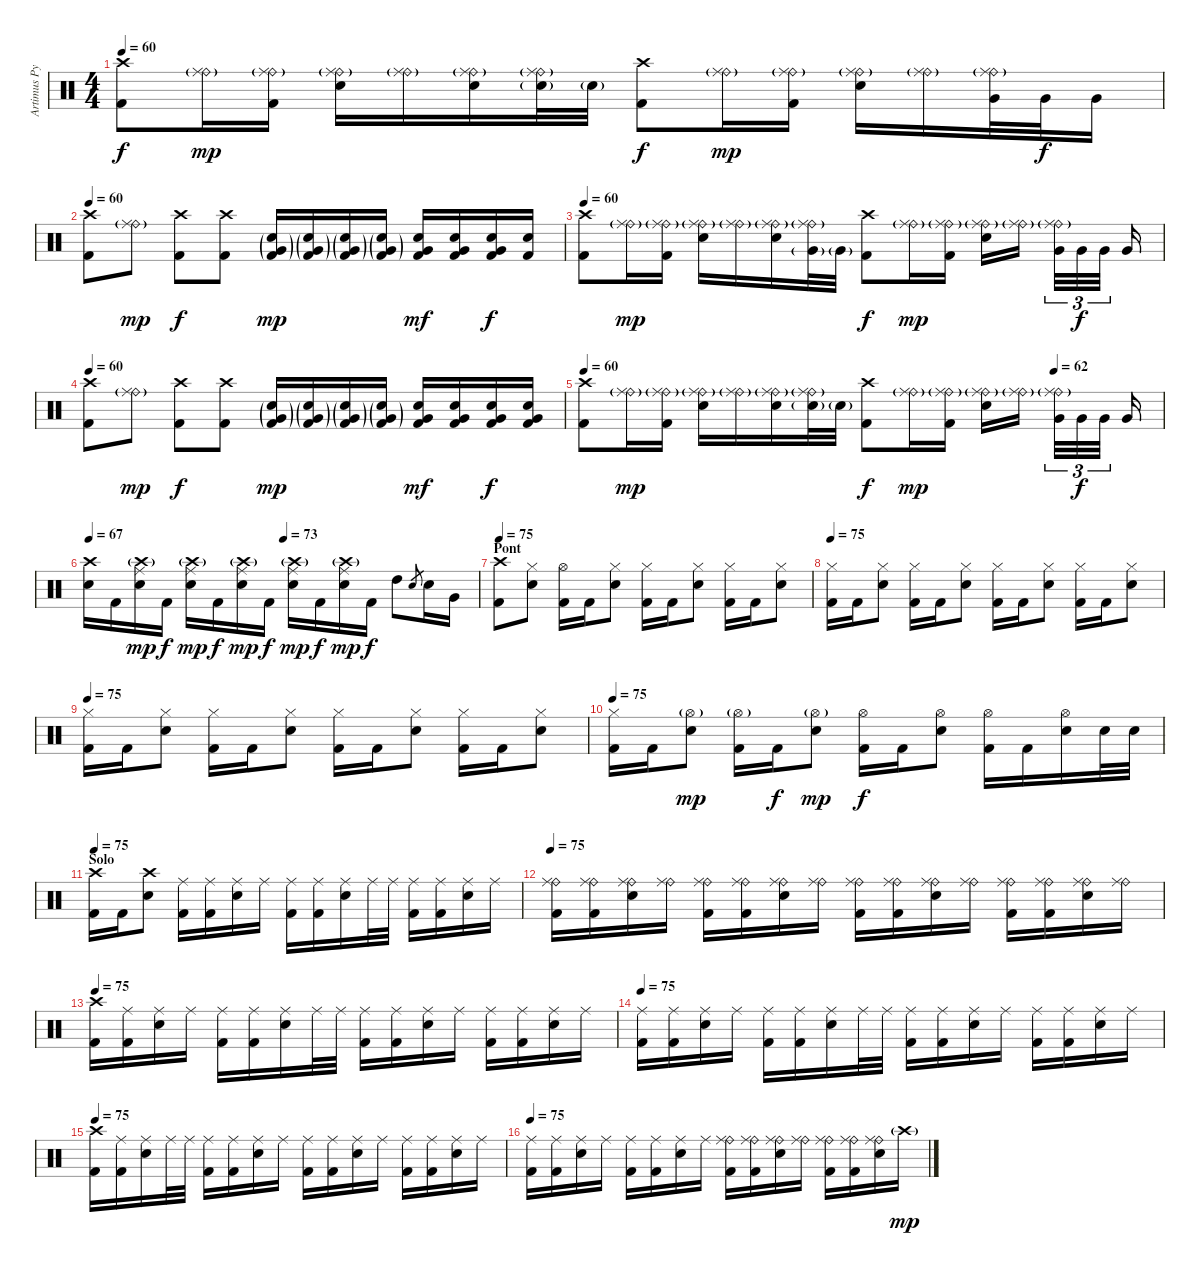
\track ("Artimus Pyle (drums)" "Artimus Py") {instrument percussion}
\staff {score}
\articulation defaults
\ts (4 4)
\tempo 60
\clef neutral
\ks c
("Crash high (hit)" "Kick (hit) 2").8{dy f} ("Ride (bell)"{g} "Ride (middle)").16{dy mp} ("Ride (bell)"{g} "Ride (middle)" "Kick (hit) 2").16 ("Ride (bell)"{g} "Ride (middle)" "Electric Snare (hit)").16 ("Ride (bell)"{g} "Ride (middle)").16 ("Ride (bell)"{g} "Ride (middle)" "Electric Snare (hit)").16 ("Ride (bell)"{g} "Ride (middle)" "Electric Snare (hit)"{g}).32 "Electric Snare (hit)"{g}.32 ("Crash high (hit)" "Kick (hit) 2").8{dy f} ("Ride (bell)"{g} "Ride (middle)").16{dy mp} ("Ride (bell)"{g} "Ride (middle)" "Kick (hit) 2").16 ("Ride (bell)"{g} "Ride (middle)" "Electric Snare (hit)").16 ("Ride (bell)"{g} "Ride (middle)").16 ("Ride (bell)"{g} "Ride (middle)" "Very Low Tom (hit)").32 "Very Low Tom (hit)".32{dy f} "Very Low Tom (hit)".16 |
\tempo 60
("Crash high (hit)" "Kick (hit) 2").8 ("Ride (bell)"{g} "Ride (middle)").8{dy mp} ("Crash high (hit)" "Kick (hit) 2").8{dy f} ("Crash high (hit)" "Kick (hit) 2").8 ("Very Low Tom (hit)"{g} "Electric Snare (hit)"{g} "Kick (hit) 2"{g}).16{dy mp} ("Very Low Tom (hit)"{g} "Electric Snare (hit)"{g} "Kick (hit) 2"{g}).16 ("Very Low Tom (hit)"{g} "Electric Snare (hit)"{g} "Kick (hit) 2"{g}).16 ("Very Low Tom (hit)"{g} "Electric Snare (hit)"{g} "Kick (hit) 2"{g}).16 ("Very Low Tom (hit)" "Electric Snare (hit)" "Kick (hit) 2").16{dy mf} ("Very Low Tom (hit)" "Electric Snare (hit)" "Kick (hit) 2").16 ("Very Low Tom (hit)" "Electric Snare (hit)" "Kick (hit) 2").16{dy f} ("Electric Snare (hit)" "Kick (hit) 2").16 |
\tempo 60
("Crash high (hit)" "Kick (hit) 2").8 ("Ride (bell)"{g} "Ride (middle)").16{dy mp} ("Ride (bell)"{g} "Ride (middle)" "Kick (hit) 2").16 ("Ride (bell)"{g} "Ride (middle)" "Electric Snare (hit)").16 ("Ride (bell)"{g} "Ride (middle)").16 ("Ride (bell)"{g} "Ride (middle)" "Electric Snare (hit)").16 ("Ride (bell)"{g} "Ride (middle)" "Very Low Tom (hit)"{g}).32 "Very Low Tom (hit)"{g}.32 ("Crash high (hit)" "Kick (hit) 2").8{dy f} ("Ride (bell)"{g} "Ride (middle)").16{dy mp} ("Ride (bell)"{g} "Ride (middle)" "Kick (hit) 2").16 ("Ride (bell)"{g} "Ride (middle)" "Electric Snare (hit)").16 ("Ride (bell)"{g} "Ride (middle)").16 ("Ride (bell)"{g} "Ride (middle)" "Very Low Tom (hit)").32{tu (3 2)} "Very Low Tom (hit)".32{tu (3 2) dy f} "Very Low Tom (hit)".32{tu (3 2)} "Very Low Tom (hit)".16 |
\tempo 60
("Crash high (hit)" "Kick (hit) 2").8 ("Ride (bell)"{g} "Ride (middle)").8{dy mp} ("Crash high (hit)" "Kick (hit) 2").8{dy f} ("Crash high (hit)" "Kick (hit) 2").8 ("Very Low Tom (hit)"{g} "Electric Snare (hit)"{g} "Kick (hit) 2"{g}).16{dy mp} ("Very Low Tom (hit)"{g} "Electric Snare (hit)"{g} "Kick (hit) 2"{g}).16 ("Very Low Tom (hit)"{g} "Electric Snare (hit)"{g} "Kick (hit) 2"{g}).16 ("Very Low Tom (hit)"{g} "Electric Snare (hit)"{g} "Kick (hit) 2"{g}).16 ("Very Low Tom (hit)" "Electric Snare (hit)" "Kick (hit) 2").16{dy mf} ("Very Low Tom (hit)" "Electric Snare (hit)" "Kick (hit) 2").16 ("Very Low Tom (hit)" "Electric Snare (hit)" "Kick (hit) 2").16{dy f} ("Very Low Tom (hit)" "Electric Snare (hit)" "Kick (hit) 2").16 |
\tempo 60
\tempo (62 0.8125)
("Crash high (hit)" "Kick (hit) 2").8 ("Ride (bell)"{g} "Ride (middle)").16{dy mp} ("Ride (bell)"{g} "Ride (middle)" "Kick (hit) 2").16 ("Ride (bell)"{g} "Ride (middle)" "Electric Snare (hit)").16 ("Ride (bell)"{g} "Ride (middle)").16 ("Ride (bell)"{g} "Ride (middle)" "Electric Snare (hit)").16 ("Ride (bell)"{g} "Ride (middle)" "Electric Snare (hit)"{g}).32 "Electric Snare (hit)"{g}.32 ("Crash high (hit)" "Kick (hit) 2").8{dy f} ("Ride (bell)"{g} "Ride (middle)").16{dy mp} ("Ride (bell)"{g} "Ride (middle)" "Kick (hit) 2").16 ("Ride (bell)"{g} "Ride (middle)" "Electric Snare (hit)").16 ("Ride (bell)"{g} "Ride (middle)").16 ("Ride (bell)"{g} "Ride (middle)" "Very Low Tom (hit)").32{tu (3 2)} "Very Low Tom (hit)".32{tu (3 2) dy f} "Very Low Tom (hit)".32{tu (3 2)} "Very Low Tom (hit)".16 |
\tempo 67
\tempo (73 0.5)
("Crash high (hit)" "Electric Snare (hit)").16 "Kick (hit) 2".16 ("Crash high (hit)"{g} "Ride (middle)" "Electric Snare (hit)").16{dy mp} "Kick (hit) 2".16{dy f} ("Crash high (hit)"{g} "Ride (middle)" "Electric Snare (hit)").16{dy mp} "Kick (hit) 2".16{dy f} ("Crash high (hit)"{g} "Ride (middle)" "Electric Snare (hit)").16{dy mp} "Kick (hit) 2".16{dy f} ("Crash high (hit)"{g} "Ride (middle)" "Electric Snare (hit)").16{dy mp} "Kick (hit) 2".16{dy f} ("Crash high (hit)"{g} "Ride (middle)" "Electric Snare (hit)").16{dy mp} "Kick (hit) 2".16{dy f} "High Tom (hit)".8 "Electric Snare (hit)".8{gr} "Electric Snare (hit)".16 "Very Low Tom (hit)".16 |
\section ("" "Pont")
\tempo 75
("Crash high (hit)" "Kick (hit) 2").8 ("Hi-Hat (closed)" "Electric Snare (hit)").8 ("Hi-Hat (open)" "Kick (hit) 2").16 "Kick (hit) 2".16 ("Hi-Hat (closed)" "Electric Snare (hit)").8 ("Hi-Hat (closed)" "Kick (hit) 2").16 "Kick (hit) 2".16 ("Hi-Hat (closed)" "Electric Snare (hit)").8 ("Hi-Hat (closed)" "Kick (hit) 2").16 "Kick (hit) 2".16 ("Hi-Hat (closed)" "Electric Snare (hit)").8 |
\tempo 75
("Hi-Hat (closed)" "Kick (hit) 2").16 "Kick (hit) 2".16 ("Hi-Hat (closed)" "Electric Snare (hit)").8 ("Hi-Hat (closed)" "Kick (hit) 2").16 "Kick (hit) 2".16 ("Hi-Hat (closed)" "Electric Snare (hit)").8 ("Hi-Hat (closed)" "Kick (hit) 2").16 "Kick (hit) 2".16 ("Hi-Hat (closed)" "Electric Snare (hit)").8 ("Hi-Hat (closed)" "Kick (hit) 2").16 "Kick (hit) 2".16 ("Hi-Hat (closed)" "Electric Snare (hit)").8 |
\tempo 75
("Hi-Hat (closed)" "Kick (hit) 2").16 "Kick (hit) 2".16 ("Hi-Hat (closed)" "Electric Snare (hit)").8 ("Hi-Hat (closed)" "Kick (hit) 2").16 "Kick (hit) 2".16 ("Hi-Hat (closed)" "Electric Snare (hit)").8 ("Hi-Hat (closed)" "Kick (hit) 2").16 "Kick (hit) 2".16 ("Hi-Hat (closed)" "Electric Snare (hit)").8 ("Hi-Hat (closed)" "Kick (hit) 2").16 "Kick (hit) 2".16 ("Hi-Hat (closed)" "Electric Snare (hit)").8 |
\tempo 75
("Hi-Hat (closed)" "Kick (hit) 2").16 "Kick (hit) 2".16 ("Hi-Hat (open)"{g} "Electric Snare (hit)").8{dy mp} ("Hi-Hat (open)"{g} "Kick (hit) 2").16 "Kick (hit) 2".16{dy f} ("Hi-Hat (open)"{g} "Electric Snare (hit)").8{dy mp} ("Hi-Hat (open)" "Kick (hit) 2").16{dy f} "Kick (hit) 2".16 ("Hi-Hat (open)" "Electric Snare (hit)").8 ("Hi-Hat (open)" "Kick (hit) 2").16 "Kick (hit) 2".16 ("Hi-Hat (open)" "Electric Snare (hit)").16 "Electric Snare (hit)".32 "Electric Snare (hit)".32 |
\section ("" "Solo")
\tempo 75
("Crash high (hit)" "Kick (hit) 2").16 "Kick (hit) 2".16 ("Crash high (hit)" "Electric Snare (hit)").8 ("Ride (middle)" "Kick (hit) 2").16 ("Ride (middle)" "Kick (hit) 2").16 ("Ride (middle)" "Electric Snare (hit)").16 "Ride (middle)".16 ("Ride (middle)" "Kick (hit) 2").16 ("Ride (middle)" "Kick (hit) 2").16 ("Ride (middle)" "Electric Snare (hit)").16 "Ride (middle)".32 "Ride (middle)".32 ("Ride (middle)" "Kick (hit) 2").16 ("Ride (middle)" "Kick (hit) 2").16 ("Ride (middle)" "Electric Snare (hit)").16 "Ride (middle)".16 |
\tempo 75
("Ride (bell)" "Ride (middle)" "Kick (hit) 2").16 ("Ride (bell)" "Ride (middle)" "Kick (hit) 2").16 ("Ride (bell)" "Ride (middle)" "Electric Snare (hit)").16 ("Ride (bell)" "Ride (middle)").16 ("Ride (bell)" "Ride (middle)" "Kick (hit) 2").16 ("Ride (bell)" "Ride (middle)" "Kick (hit) 2").16 ("Ride (bell)" "Ride (middle)" "Electric Snare (hit)").16 ("Ride (bell)" "Ride (middle)").16 ("Ride (bell)" "Ride (middle)" "Kick (hit) 2").16 ("Ride (bell)" "Ride (middle)" "Kick (hit) 2").16 ("Ride (bell)" "Ride (middle)" "Electric Snare (hit)").16 ("Ride (bell)" "Ride (middle)").16 ("Ride (bell)" "Ride (middle)" "Kick (hit) 2").16 ("Ride (bell)" "Ride (middle)" "Kick (hit) 2").16 ("Ride (bell)" "Ride (middle)" "Electric Snare (hit)").16 ("Ride (bell)" "Ride (middle)").16 |
\tempo 75
("Crash high (hit)" "Kick (hit) 2").16 ("Ride (middle)" "Kick (hit) 2").16 ("Ride (middle)" "Electric Snare (hit)").16 "Ride (middle)".16 ("Ride (middle)" "Kick (hit) 2").16 ("Ride (middle)" "Kick (hit) 2").16 ("Ride (middle)" "Electric Snare (hit)").16 "Ride (middle)".32 "Ride (middle)".32 ("Ride (middle)" "Kick (hit) 2").16 ("Ride (middle)" "Kick (hit) 2").16 ("Ride (middle)" "Electric Snare (hit)").16 "Ride (middle)".16 ("Ride (middle)" "Kick (hit) 2").16 ("Ride (middle)" "Kick (hit) 2").16 ("Ride (middle)" "Electric Snare (hit)").16 "Ride (middle)".16 |
\tempo 75
("Ride (middle)" "Kick (hit) 2").16 ("Ride (middle)" "Kick (hit) 2").16 ("Ride (middle)" "Electric Snare (hit)").16 "Ride (middle)".16 ("Ride (middle)" "Kick (hit) 2").16 ("Ride (middle)" "Kick (hit) 2").16 ("Ride (middle)" "Electric Snare (hit)").16 "Ride (middle)".32 "Ride (middle)".32 ("Ride (middle)" "Kick (hit) 2").16 ("Ride (middle)" "Kick (hit) 2").16 ("Ride (middle)" "Electric Snare (hit)").16 "Ride (middle)".16 ("Ride (middle)" "Kick (hit) 2").16 ("Ride (middle)" "Kick (hit) 2").16 ("Ride (middle)" "Electric Snare (hit)").16 "Ride (middle)".16 |
\tempo 75
("Crash high (hit)" "Kick (hit) 2").16 ("Ride (middle)" "Kick (hit) 2").16 ("Ride (middle)" "Electric Snare (hit)").16 "Ride (middle)".32 "Ride (middle)".32 ("Ride (middle)" "Kick (hit) 2").16 ("Ride (middle)" "Kick (hit) 2").16 ("Ride (middle)" "Electric Snare (hit)").16 "Ride (middle)".16 ("Ride (middle)" "Kick (hit) 2").16 ("Ride (middle)" "Kick (hit) 2").16 ("Ride (middle)" "Electric Snare (hit)").16 "Ride (middle)".16 ("Ride (middle)" "Kick (hit) 2").16 ("Ride (middle)" "Kick (hit) 2").16 ("Ride (middle)" "Electric Snare (hit)").16 "Ride (middle)".16 |
\tempo 75
("Ride (middle)" "Kick (hit) 2").16 ("Ride (middle)" "Kick (hit) 2").16 ("Ride (middle)" "Electric Snare (hit)").16 "Ride (middle)".16 ("Ride (middle)" "Kick (hit) 2").16 ("Ride (middle)" "Kick (hit) 2").16 ("Ride (middle)" "Electric Snare (hit)").16 "Ride (middle)".16 ("Ride (bell)" "Ride (middle)" "Kick (hit) 2").16 ("Ride (bell)" "Ride (middle)" "Kick (hit) 2").16 ("Ride (bell)" "Ride (middle)" "Electric Snare (hit)").16 ("Ride (bell)" "Ride (middle)").16 ("Ride (bell)" "Ride (middle)" "Kick (hit) 2").16 ("Ride (bell)" "Ride (middle)" "Kick (hit) 2").16 ("Ride (bell)" "Ride (middle)" "Electric Snare (hit)").16 "Crash high (hit)"{g}.16{dy mp}
